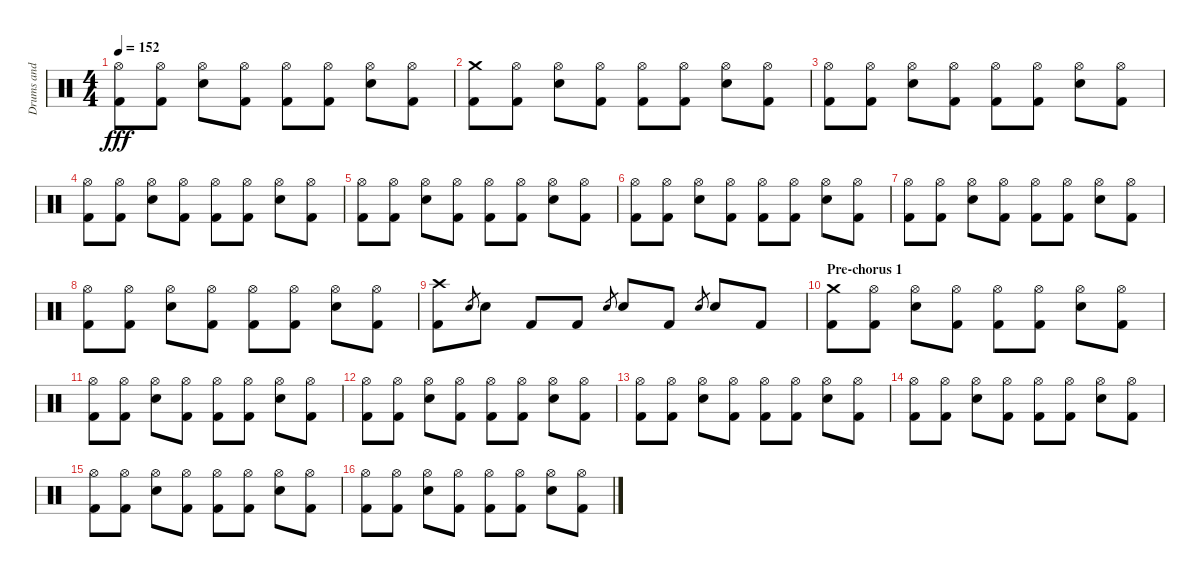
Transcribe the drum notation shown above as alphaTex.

\track ("Drums and Percussion" "Drums and ") {instrument percussion}
\staff {score}
\articulation defaults
\ts (4 4)
\tempo 152
\clef neutral
\ks c
("Hi-Hat (open)" "Kick (hit) 2").8{dy fff} ("Hi-Hat (open)" "Kick (hit) 2").8 ("Hi-Hat (open)" "Snare (hit) 2").8 ("Hi-Hat (open)" "Kick (hit) 2").8 ("Hi-Hat (open)" "Kick (hit) 2").8 ("Hi-Hat (open)" "Kick (hit) 2").8 ("Hi-Hat (open)" "Snare (hit) 2").8 ("Hi-Hat (open)" "Kick (hit) 2").8 |
("Crash medium (hit)" "Kick (hit) 2").8 ("Hi-Hat (open)" "Kick (hit) 2").8 ("Hi-Hat (open)" "Snare (hit) 2").8 ("Hi-Hat (open)" "Kick (hit) 2").8 ("Hi-Hat (open)" "Kick (hit) 2").8 ("Hi-Hat (open)" "Kick (hit) 2").8 ("Hi-Hat (open)" "Snare (hit) 2").8 ("Hi-Hat (open)" "Kick (hit) 2").8 |
("Hi-Hat (open)" "Kick (hit) 2").8 ("Hi-Hat (open)" "Kick (hit) 2").8 ("Hi-Hat (open)" "Snare (hit) 2").8 ("Hi-Hat (open)" "Kick (hit) 2").8 ("Hi-Hat (open)" "Kick (hit) 2").8 ("Hi-Hat (open)" "Kick (hit) 2").8 ("Hi-Hat (open)" "Snare (hit) 2").8 ("Hi-Hat (open)" "Kick (hit) 2").8 |
("Hi-Hat (open)" "Kick (hit) 2").8 ("Hi-Hat (open)" "Kick (hit) 2").8 ("Hi-Hat (open)" "Snare (hit) 2").8 ("Hi-Hat (open)" "Kick (hit) 2").8 ("Hi-Hat (open)" "Kick (hit) 2").8 ("Hi-Hat (open)" "Kick (hit) 2").8 ("Hi-Hat (open)" "Snare (hit) 2").8 ("Hi-Hat (open)" "Kick (hit) 2").8 |
("Hi-Hat (open)" "Kick (hit) 2").8 ("Hi-Hat (open)" "Kick (hit) 2").8 ("Hi-Hat (open)" "Snare (hit) 2").8 ("Hi-Hat (open)" "Kick (hit) 2").8 ("Hi-Hat (open)" "Kick (hit) 2").8 ("Hi-Hat (open)" "Kick (hit) 2").8 ("Hi-Hat (open)" "Snare (hit) 2").8 ("Hi-Hat (open)" "Kick (hit) 2").8 |
("Hi-Hat (open)" "Kick (hit) 2").8 ("Hi-Hat (open)" "Kick (hit) 2").8 ("Hi-Hat (open)" "Snare (hit) 2").8 ("Hi-Hat (open)" "Kick (hit) 2").8 ("Hi-Hat (open)" "Kick (hit) 2").8 ("Hi-Hat (open)" "Kick (hit) 2").8 ("Hi-Hat (open)" "Snare (hit) 2").8 ("Hi-Hat (open)" "Kick (hit) 2").8 |
("Hi-Hat (open)" "Kick (hit) 2").8 ("Hi-Hat (open)" "Kick (hit) 2").8 ("Hi-Hat (open)" "Snare (hit) 2").8 ("Hi-Hat (open)" "Kick (hit) 2").8 ("Hi-Hat (open)" "Kick (hit) 2").8 ("Hi-Hat (open)" "Kick (hit) 2").8 ("Hi-Hat (open)" "Snare (hit) 2").8 ("Hi-Hat (open)" "Kick (hit) 2").8 |
("Hi-Hat (open)" "Kick (hit) 2").8 ("Hi-Hat (open)" "Kick (hit) 2").8 ("Hi-Hat (open)" "Snare (hit) 2").8 ("Hi-Hat (open)" "Kick (hit) 2").8 ("Hi-Hat (open)" "Kick (hit) 2").8 ("Hi-Hat (open)" "Kick (hit) 2").8 ("Hi-Hat (open)" "Snare (hit) 2").8 ("Hi-Hat (open)" "Kick (hit) 2").8 |
("Crash high (hit)" "Kick (hit) 2").8 "Snare (hit) 2".8{gr} "Snare (hit) 2".8 "Kick (hit) 2".8 "Kick (hit) 2".8 "Snare (hit) 2".8{gr} "Snare (hit) 2".8 "Kick (hit) 2".8 "Snare (hit) 2".8{gr} "Snare (hit) 2".8 "Kick (hit) 2".8 |
\section ("" "Pre-chorus 1")
("Crash medium (hit)" "Kick (hit) 2").8 ("Hi-Hat (open)" "Kick (hit) 2").8 ("Hi-Hat (open)" "Snare (hit) 2").8 ("Hi-Hat (open)" "Kick (hit) 2").8 ("Hi-Hat (open)" "Kick (hit) 2").8 ("Hi-Hat (open)" "Kick (hit) 2").8 ("Hi-Hat (open)" "Snare (hit) 2").8 ("Hi-Hat (open)" "Kick (hit) 2").8 |
("Hi-Hat (open)" "Kick (hit) 2").8 ("Hi-Hat (open)" "Kick (hit) 2").8 ("Hi-Hat (open)" "Snare (hit) 2").8 ("Hi-Hat (open)" "Kick (hit) 2").8 ("Hi-Hat (open)" "Kick (hit) 2").8 ("Hi-Hat (open)" "Kick (hit) 2").8 ("Hi-Hat (open)" "Snare (hit) 2").8 ("Hi-Hat (open)" "Kick (hit) 2").8 |
("Hi-Hat (open)" "Kick (hit) 2").8 ("Hi-Hat (open)" "Kick (hit) 2").8 ("Hi-Hat (open)" "Snare (hit) 2").8 ("Hi-Hat (open)" "Kick (hit) 2").8 ("Hi-Hat (open)" "Kick (hit) 2").8 ("Hi-Hat (open)" "Kick (hit) 2").8 ("Hi-Hat (open)" "Snare (hit) 2").8 ("Hi-Hat (open)" "Kick (hit) 2").8 |
("Hi-Hat (open)" "Kick (hit) 2").8 ("Hi-Hat (open)" "Kick (hit) 2").8 ("Hi-Hat (open)" "Snare (hit) 2").8 ("Hi-Hat (open)" "Kick (hit) 2").8 ("Hi-Hat (open)" "Kick (hit) 2").8 ("Hi-Hat (open)" "Kick (hit) 2").8 ("Hi-Hat (open)" "Snare (hit) 2").8 ("Hi-Hat (open)" "Kick (hit) 2").8 |
("Hi-Hat (open)" "Kick (hit) 2").8 ("Hi-Hat (open)" "Kick (hit) 2").8 ("Hi-Hat (open)" "Snare (hit) 2").8 ("Hi-Hat (open)" "Kick (hit) 2").8 ("Hi-Hat (open)" "Kick (hit) 2").8 ("Hi-Hat (open)" "Kick (hit) 2").8 ("Hi-Hat (open)" "Snare (hit) 2").8 ("Hi-Hat (open)" "Kick (hit) 2").8 |
("Hi-Hat (open)" "Kick (hit) 2").8 ("Hi-Hat (open)" "Kick (hit) 2").8 ("Hi-Hat (open)" "Snare (hit) 2").8 ("Hi-Hat (open)" "Kick (hit) 2").8 ("Hi-Hat (open)" "Kick (hit) 2").8 ("Hi-Hat (open)" "Kick (hit) 2").8 ("Hi-Hat (open)" "Snare (hit) 2").8 ("Hi-Hat (open)" "Kick (hit) 2").8 |
("Hi-Hat (open)" "Kick (hit) 2").8 ("Hi-Hat (open)" "Kick (hit) 2").8 ("Hi-Hat (open)" "Snare (hit) 2").8 ("Hi-Hat (open)" "Kick (hit) 2").8 ("Hi-Hat (open)" "Kick (hit) 2").8 ("Hi-Hat (open)" "Kick (hit) 2").8 ("Hi-Hat (open)" "Snare (hit) 2").8 ("Hi-Hat (open)" "Kick (hit) 2").8
